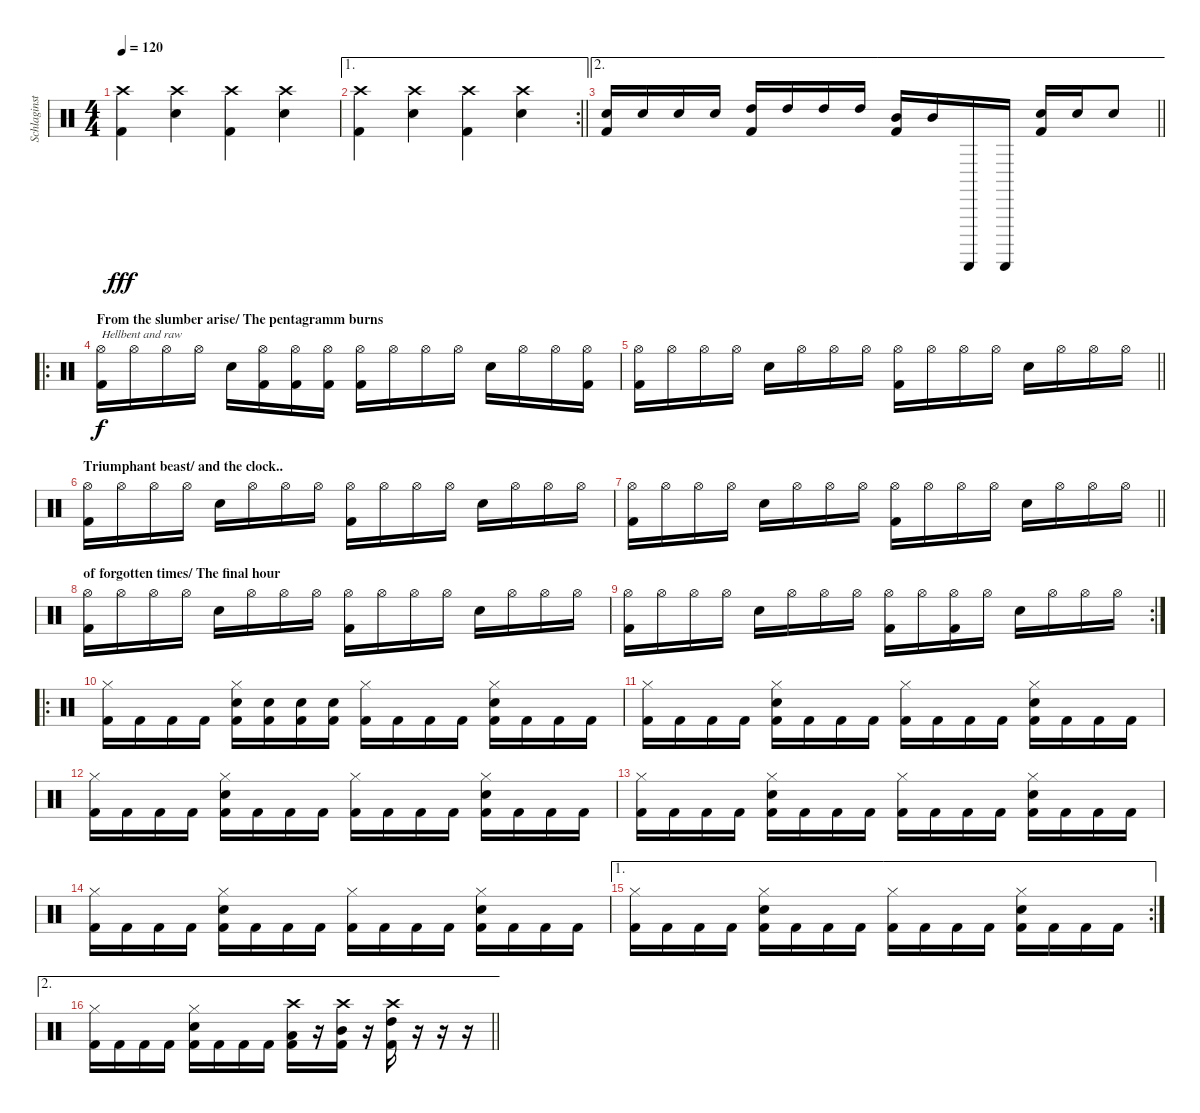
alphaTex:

\track ("Schlaginstrumente - Auswahl" "Schlaginst") {instrument percussion}
\staff {score}
\articulation defaults
\ts (4 4)
\tempo 120
\clef neutral
\ks c
("Crash high (hit)" "Kick (hit) 2").4{dy fff} ("Crash high (hit)" "Electric Snare (hit)").4 ("Crash high (hit)" "Kick (hit) 2").4 ("Crash high (hit)" "Electric Snare (hit)").4 |
\ae 1
\rc 2
\barLineRight lightlight
("Crash high (hit)" "Kick (hit) 2").4 ("Crash high (hit)" "Electric Snare (hit)").4 ("Crash high (hit)" "Kick (hit) 2").4 ("Crash high (hit)" "Electric Snare (hit)").4 |
\ae 2
\barLineRight lightlight
("Electric Snare (hit)" "Kick (hit) 2").16 "Electric Snare (hit)".16 "Electric Snare (hit)".16 "Electric Snare (hit)".16 ("High Tom (hit)" "Kick (hit) 2").16 "High Tom (hit)".16 "High Tom (hit)".16 "High Tom (hit)".16 ("Mid Tom (hit)" "Kick (hit) 2").16 "Mid Tom (hit)".16 "Guiro (scrap-return)".16 "Guiro (scrap-return)".16 ("Electric Snare (hit)" "Kick (hit) 2").16 "Electric Snare (hit)".16 "Electric Snare (hit)".8 |
\ro
\section ("" "From the slumber arise/ The pentagramm burns")
("Hi-Hat (open)" "Kick (hit) 2").16{txt "Hellbent and raw" dy f} "Hi-Hat (open)".16 "Hi-Hat (open)".16 "Hi-Hat (open)".16 "Electric Snare (hit)".16 ("Hi-Hat (open)" "Kick (hit) 2").16 ("Hi-Hat (open)" "Kick (hit) 2").16 ("Hi-Hat (open)" "Kick (hit) 2").16 ("Hi-Hat (open)" "Kick (hit) 2").16 "Hi-Hat (open)".16 "Hi-Hat (open)".16 "Hi-Hat (open)".16 "Electric Snare (hit)".16 "Hi-Hat (open)".16 "Hi-Hat (open)".16 ("Hi-Hat (open)" "Kick (hit) 2").16 |
\barLineRight lightlight
("Hi-Hat (open)" "Kick (hit) 2").16 "Hi-Hat (open)".16 "Hi-Hat (open)".16 "Hi-Hat (open)".16 "Electric Snare (hit)".16 "Hi-Hat (open)".16 "Hi-Hat (open)".16 "Hi-Hat (open)".16 ("Hi-Hat (open)" "Kick (hit) 2").16 "Hi-Hat (open)".16 "Hi-Hat (open)".16 "Hi-Hat (open)".16 "Electric Snare (hit)".16 "Hi-Hat (open)".16 "Hi-Hat (open)".16 "Hi-Hat (open)".16 |
\section ("" "Triumphant beast/ and the clock..")
("Hi-Hat (open)" "Kick (hit) 2").16 "Hi-Hat (open)".16 "Hi-Hat (open)".16 "Hi-Hat (open)".16 "Electric Snare (hit)".16 "Hi-Hat (open)".16 "Hi-Hat (open)".16 "Hi-Hat (open)".16 ("Hi-Hat (open)" "Kick (hit) 2").16 "Hi-Hat (open)".16 "Hi-Hat (open)".16 "Hi-Hat (open)".16 "Electric Snare (hit)".16 "Hi-Hat (open)".16 "Hi-Hat (open)".16 "Hi-Hat (open)".16 |
\barLineRight lightlight
("Hi-Hat (open)" "Kick (hit) 2").16 "Hi-Hat (open)".16 "Hi-Hat (open)".16 "Hi-Hat (open)".16 "Electric Snare (hit)".16 "Hi-Hat (open)".16 "Hi-Hat (open)".16 "Hi-Hat (open)".16 ("Hi-Hat (open)" "Kick (hit) 2").16 "Hi-Hat (open)".16 "Hi-Hat (open)".16 "Hi-Hat (open)".16 "Electric Snare (hit)".16 "Hi-Hat (open)".16 "Hi-Hat (open)".16 "Hi-Hat (open)".16 |
\section ("" "of forgotten times/ The final hour")
("Hi-Hat (open)" "Kick (hit) 2").16 "Hi-Hat (open)".16 "Hi-Hat (open)".16 "Hi-Hat (open)".16 "Electric Snare (hit)".16 "Hi-Hat (open)".16 "Hi-Hat (open)".16 "Hi-Hat (open)".16 ("Hi-Hat (open)" "Kick (hit) 2").16 "Hi-Hat (open)".16 "Hi-Hat (open)".16 "Hi-Hat (open)".16 "Electric Snare (hit)".16 "Hi-Hat (open)".16 "Hi-Hat (open)".16 "Hi-Hat (open)".16 |
\rc 2
("Hi-Hat (open)" "Kick (hit) 2").16 "Hi-Hat (open)".16 "Hi-Hat (open)".16 "Hi-Hat (open)".16 "Electric Snare (hit)".16 "Hi-Hat (open)".16 "Hi-Hat (open)".16 "Hi-Hat (open)".16 ("Hi-Hat (open)" "Kick (hit) 2").16 "Hi-Hat (open)".16 ("Hi-Hat (open)" "Kick (hit) 2").16 "Hi-Hat (open)".16 "Electric Snare (hit)".16 "Hi-Hat (open)".16 "Hi-Hat (open)".16 "Hi-Hat (open)".16 |
\ro
("Hi-Hat (closed)" "Kick (hit) 2").16 "Kick (hit) 2".16 "Kick (hit) 2".16 "Kick (hit) 2".16 ("Hi-Hat (closed)" "Electric Snare (hit)" "Kick (hit) 2").16 ("Electric Snare (hit)" "Kick (hit) 2").16 ("Electric Snare (hit)" "Kick (hit) 2").16 ("Electric Snare (hit)" "Kick (hit) 2").16 ("Hi-Hat (closed)" "Kick (hit) 2").16 "Kick (hit) 2".16 "Kick (hit) 2".16 "Kick (hit) 2".16 ("Hi-Hat (closed)" "Electric Snare (hit)" "Kick (hit) 2").16 "Kick (hit) 2".16 "Kick (hit) 2".16 "Kick (hit) 2".16 |
("Hi-Hat (closed)" "Kick (hit) 2").16 "Kick (hit) 2".16 "Kick (hit) 2".16 "Kick (hit) 2".16 ("Hi-Hat (closed)" "Electric Snare (hit)" "Kick (hit) 2").16 "Kick (hit) 2".16 "Kick (hit) 2".16 "Kick (hit) 2".16 ("Hi-Hat (closed)" "Kick (hit) 2").16 "Kick (hit) 2".16 "Kick (hit) 2".16 "Kick (hit) 2".16 ("Hi-Hat (closed)" "Electric Snare (hit)" "Kick (hit) 2").16 "Kick (hit) 2".16 "Kick (hit) 2".16 "Kick (hit) 2".16 |
("Hi-Hat (closed)" "Kick (hit) 2").16 "Kick (hit) 2".16 "Kick (hit) 2".16 "Kick (hit) 2".16 ("Hi-Hat (closed)" "Electric Snare (hit)" "Kick (hit) 2").16 "Kick (hit) 2".16 "Kick (hit) 2".16 "Kick (hit) 2".16 ("Hi-Hat (closed)" "Kick (hit) 2").16 "Kick (hit) 2".16 "Kick (hit) 2".16 "Kick (hit) 2".16 ("Hi-Hat (closed)" "Electric Snare (hit)" "Kick (hit) 2").16 "Kick (hit) 2".16 "Kick (hit) 2".16 "Kick (hit) 2".16 |
("Hi-Hat (closed)" "Kick (hit) 2").16 "Kick (hit) 2".16 "Kick (hit) 2".16 "Kick (hit) 2".16 ("Hi-Hat (closed)" "Electric Snare (hit)" "Kick (hit) 2").16 "Kick (hit) 2".16 "Kick (hit) 2".16 "Kick (hit) 2".16 ("Hi-Hat (closed)" "Kick (hit) 2").16 "Kick (hit) 2".16 "Kick (hit) 2".16 "Kick (hit) 2".16 ("Hi-Hat (closed)" "Electric Snare (hit)" "Kick (hit) 2").16 "Kick (hit) 2".16 "Kick (hit) 2".16 "Kick (hit) 2".16 |
("Hi-Hat (closed)" "Kick (hit) 2").16 "Kick (hit) 2".16 "Kick (hit) 2".16 "Kick (hit) 2".16 ("Hi-Hat (closed)" "Electric Snare (hit)" "Kick (hit) 2").16 "Kick (hit) 2".16 "Kick (hit) 2".16 "Kick (hit) 2".16 ("Hi-Hat (closed)" "Kick (hit) 2").16 "Kick (hit) 2".16 "Kick (hit) 2".16 "Kick (hit) 2".16 ("Hi-Hat (closed)" "Electric Snare (hit)" "Kick (hit) 2").16 "Kick (hit) 2".16 "Kick (hit) 2".16 "Kick (hit) 2".16 |
\ae 1
\rc 2
("Hi-Hat (closed)" "Kick (hit) 2").16 "Kick (hit) 2".16 "Kick (hit) 2".16 "Kick (hit) 2".16 ("Hi-Hat (closed)" "Electric Snare (hit)" "Kick (hit) 2").16 "Kick (hit) 2".16 "Kick (hit) 2".16 "Kick (hit) 2".16 ("Hi-Hat (closed)" "Kick (hit) 2").16 "Kick (hit) 2".16 "Kick (hit) 2".16 "Kick (hit) 2".16 ("Hi-Hat (closed)" "Electric Snare (hit)" "Kick (hit) 2").16 "Kick (hit) 2".16 "Kick (hit) 2".16 "Kick (hit) 2".16 |
\ae 2
\barLineRight lightlight
("Hi-Hat (closed)" "Kick (hit) 2").16 "Kick (hit) 2".16 "Kick (hit) 2".16 "Kick (hit) 2".16 ("Hi-Hat (closed)" "Electric Snare (hit)" "Kick (hit) 2").16 "Kick (hit) 2".16 "Kick (hit) 2".16 "Kick (hit) 2".16 ("Crash high (hit)" "Low Tom (hit)" "Kick (hit) 2").16 r.16 ("Crash high (hit)" "Mid Tom (hit)" "Kick (hit) 2").16 r.16 ("Crash high (hit)" "High Tom (hit)" "Kick (hit) 2").16 r.16 r.16 r.16
